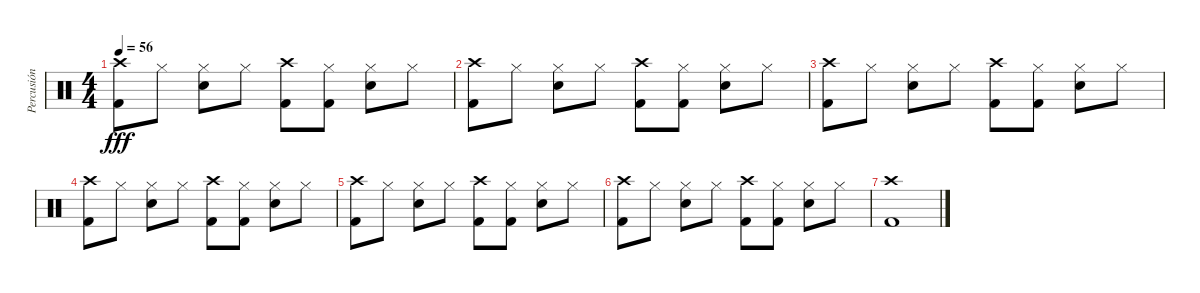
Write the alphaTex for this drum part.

\track ("Percusión" "Percusión") {instrument percussion}
\staff {score}
\articulation defaults
\ts (4 4)
\tempo 56
\clef neutral
\ks c
("Crash high (hit)" "Kick (hit) 2").8{dy fff} "Hi-Hat (closed)".8 ("Hi-Hat (closed)" "Snare (hit) 2").8 "Hi-Hat (closed)".8 ("Crash high (hit)" "Kick (hit) 2").8 ("Hi-Hat (closed)" "Kick (hit) 2").8 ("Hi-Hat (closed)" "Snare (hit) 2").8 "Hi-Hat (closed)".8 |
("Crash high (hit)" "Kick (hit) 2").8 "Hi-Hat (closed)".8 ("Hi-Hat (closed)" "Snare (hit) 2").8 "Hi-Hat (closed)".8 ("Crash high (hit)" "Kick (hit) 2").8 ("Hi-Hat (closed)" "Kick (hit) 2").8 ("Hi-Hat (closed)" "Snare (hit) 2").8 "Hi-Hat (closed)".8 |
("Crash high (hit)" "Kick (hit) 2").8 "Hi-Hat (closed)".8 ("Hi-Hat (closed)" "Snare (hit) 2").8 "Hi-Hat (closed)".8 ("Crash high (hit)" "Kick (hit) 2").8 ("Hi-Hat (closed)" "Kick (hit) 2").8 ("Hi-Hat (closed)" "Snare (hit) 2").8 "Hi-Hat (closed)".8 |
("Crash high (hit)" "Kick (hit) 2").8 "Hi-Hat (closed)".8 ("Hi-Hat (closed)" "Snare (hit) 2").8 "Hi-Hat (closed)".8 ("Crash high (hit)" "Kick (hit) 2").8 ("Hi-Hat (closed)" "Kick (hit) 2").8 ("Hi-Hat (closed)" "Snare (hit) 2").8 "Hi-Hat (closed)".8 |
("Crash high (hit)" "Kick (hit) 2").8 "Hi-Hat (closed)".8 ("Hi-Hat (closed)" "Snare (hit) 2").8 "Hi-Hat (closed)".8 ("Crash high (hit)" "Kick (hit) 2").8 ("Hi-Hat (closed)" "Kick (hit) 2").8 ("Hi-Hat (closed)" "Snare (hit) 2").8 "Hi-Hat (closed)".8 |
("Crash high (hit)" "Kick (hit) 2").8 "Hi-Hat (closed)".8 ("Hi-Hat (closed)" "Snare (hit) 2").8 "Hi-Hat (closed)".8 ("Crash high (hit)" "Kick (hit) 2").8 ("Hi-Hat (closed)" "Kick (hit) 2").8 ("Hi-Hat (closed)" "Snare (hit) 2").8 "Hi-Hat (closed)".8 |
("Crash high (hit)" "Kick (hit) 2").1
